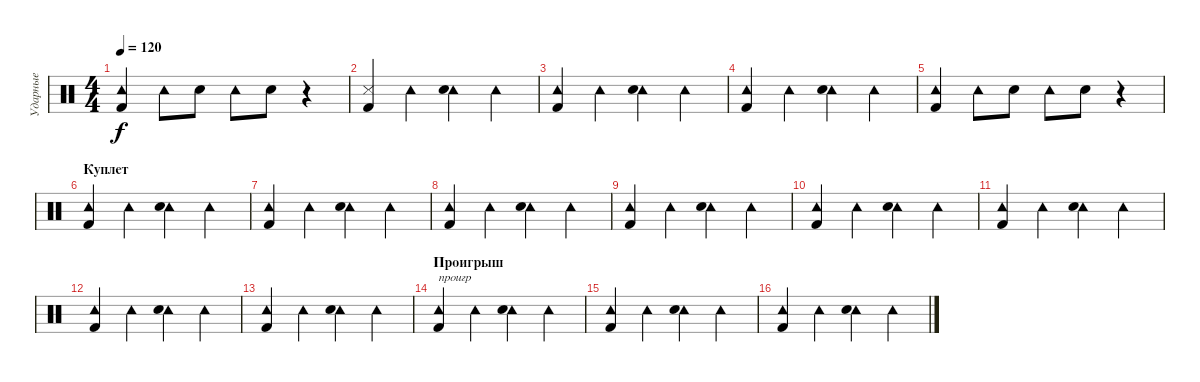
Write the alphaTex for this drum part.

\track ("Ударные" "Ударные") {instrument percussion}
\staff {score}
\articulation defaults
\ts (4 4)
\tempo 120
\clef neutral
\ks c
("Tambourine (hit)" "Kick (hit) 2").4{dy f} "Tambourine (hit)".8 "Electric Snare (hit)".8 "Tambourine (hit)".8 "Electric Snare (hit)".8 r.4 |
("Snare (side stick) 3" "Kick (hit) 2").4 "Tambourine (hit)".4 ("Tambourine (hit)" "Electric Snare (hit)").4 "Tambourine (hit)".4 |
("Tambourine (hit)" "Kick (hit) 2").4 "Tambourine (hit)".4 ("Tambourine (hit)" "Electric Snare (hit)").4 "Tambourine (hit)".4 |
("Tambourine (hit)" "Kick (hit) 2").4 "Tambourine (hit)".4 ("Tambourine (hit)" "Electric Snare (hit)").4 "Tambourine (hit)".4 |
("Tambourine (hit)" "Kick (hit) 2").4 "Tambourine (hit)".8 "Electric Snare (hit)".8 "Tambourine (hit)".8 "Electric Snare (hit)".8 r.4 |
\section ("" "Куплет")
("Tambourine (hit)" "Kick (hit) 2").4 "Tambourine (hit)".4 ("Tambourine (hit)" "Electric Snare (hit)").4 "Tambourine (hit)".4 |
("Tambourine (hit)" "Kick (hit) 2").4 "Tambourine (hit)".4 ("Tambourine (hit)" "Electric Snare (hit)").4 "Tambourine (hit)".4 |
("Tambourine (hit)" "Kick (hit) 2").4 "Tambourine (hit)".4 ("Tambourine (hit)" "Electric Snare (hit)").4 "Tambourine (hit)".4 |
("Tambourine (hit)" "Kick (hit) 2").4 "Tambourine (hit)".4 ("Tambourine (hit)" "Electric Snare (hit)").4 "Tambourine (hit)".4 |
("Tambourine (hit)" "Kick (hit) 2").4 "Tambourine (hit)".4 ("Tambourine (hit)" "Electric Snare (hit)").4 "Tambourine (hit)".4 |
("Tambourine (hit)" "Kick (hit) 2").4 "Tambourine (hit)".4 ("Tambourine (hit)" "Electric Snare (hit)").4 "Tambourine (hit)".4 |
("Tambourine (hit)" "Kick (hit) 2").4 "Tambourine (hit)".4 ("Tambourine (hit)" "Electric Snare (hit)").4 "Tambourine (hit)".4 |
("Tambourine (hit)" "Kick (hit) 2").4 "Tambourine (hit)".4 ("Tambourine (hit)" "Electric Snare (hit)").4 "Tambourine (hit)".4 |
\section ("" "Проигрыш")
("Tambourine (hit)" "Kick (hit) 2").4{txt "проигр"} "Tambourine (hit)".4 ("Tambourine (hit)" "Electric Snare (hit)").4 "Tambourine (hit)".4 |
("Tambourine (hit)" "Kick (hit) 2").4 "Tambourine (hit)".4 ("Tambourine (hit)" "Electric Snare (hit)").4 "Tambourine (hit)".4 |
("Tambourine (hit)" "Kick (hit) 2").4 "Tambourine (hit)".4 ("Tambourine (hit)" "Electric Snare (hit)").4 "Tambourine (hit)".4
